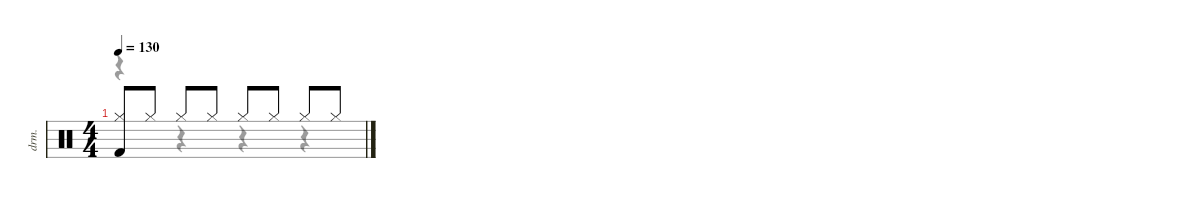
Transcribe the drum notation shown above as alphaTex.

\defaultSystemsLayout 4
\hideDynamics
\bracketExtendMode nobrackets
\track ("Drums" "drm.") {instrument percussion}
\staff {score}
\articulation defaults
\voice
\ts (4 4)
\tempo 130
\clef neutral
\ks c
("Kick (hit) 2" "Hi-Hat (closed)").8{dy fff beam Up} "Hi-Hat (closed)".8{beam Up} "Hi-Hat (closed)".8{beam Up} "Hi-Hat (closed)".8{beam Up} "Hi-Hat (closed)".8{beam Up} "Hi-Hat (closed)".8{beam Up} "Hi-Hat (closed)".8{beam Up} "Hi-Hat (closed)".8{beam Up}
\voice
\clef neutral
\ottava regular
\simile none
\ks c
r.4{dy mf beam Down} r.4{beam Down} r.4{beam Down} r.4{beam Down}
